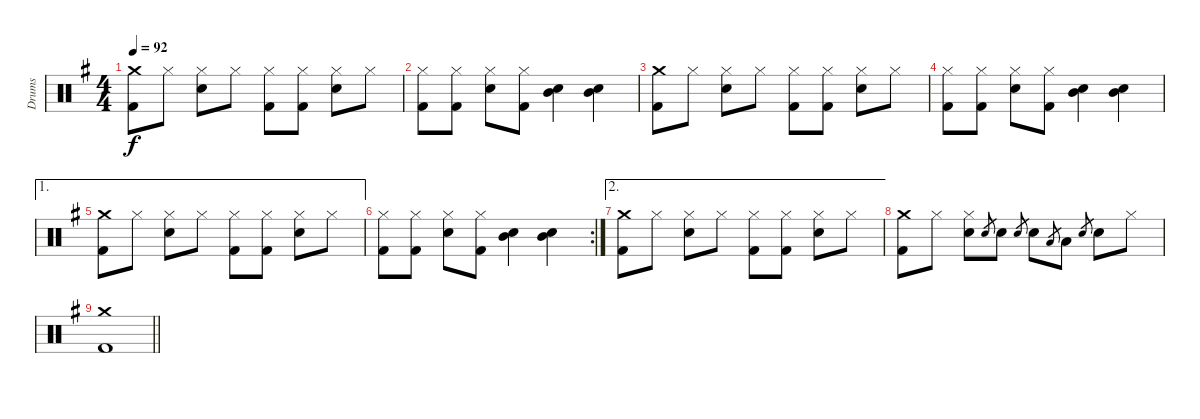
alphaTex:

\track ("Drums" "Drums") {instrument percussion}
\staff {score}
\articulation defaults
\ts (4 4)
\tempo 92
\clef neutral
\ks g
("Crash medium (hit)" "Kick (hit) 2").8{dy f} "Hi-Hat (closed)".8 ("Hi-Hat (closed)" "Snare (hit) 2").8 "Hi-Hat (closed)".8 ("Hi-Hat (closed)" "Kick (hit) 2").8 ("Hi-Hat (closed)" "Kick (hit) 2").8 ("Hi-Hat (closed)" "Snare (hit) 2").8 "Hi-Hat (closed)".8 |
("Hi-Hat (closed)" "Kick (hit) 2").8 ("Hi-Hat (closed)" "Kick (hit) 2").8 ("Hi-Hat (closed)" "Snare (hit) 2").8 ("Hi-Hat (closed)" "Kick (hit) 2").8 ("Mid Tom (hit)" "Snare (hit) 2").4 ("Mid Tom (hit)" "Snare (hit) 2").4 |
("Crash medium (hit)" "Kick (hit) 2").8 "Hi-Hat (closed)".8 ("Hi-Hat (closed)" "Snare (hit) 2").8 "Hi-Hat (closed)".8 ("Hi-Hat (closed)" "Kick (hit) 2").8 ("Hi-Hat (closed)" "Kick (hit) 2").8 ("Hi-Hat (closed)" "Snare (hit) 2").8 "Hi-Hat (closed)".8 |
("Hi-Hat (closed)" "Kick (hit) 2").8 ("Hi-Hat (closed)" "Kick (hit) 2").8 ("Hi-Hat (closed)" "Snare (hit) 2").8 ("Hi-Hat (closed)" "Kick (hit) 2").8 ("Mid Tom (hit)" "Snare (hit) 2").4 ("Mid Tom (hit)" "Snare (hit) 2").4 |
\ae 1
("Crash medium (hit)" "Kick (hit) 2").8 "Hi-Hat (closed)".8 ("Hi-Hat (closed)" "Snare (hit) 2").8 "Hi-Hat (closed)".8 ("Hi-Hat (closed)" "Kick (hit) 2").8 ("Hi-Hat (closed)" "Kick (hit) 2").8 ("Hi-Hat (closed)" "Snare (hit) 2").8 "Hi-Hat (closed)".8 |
\rc 2
("Hi-Hat (closed)" "Kick (hit) 2").8 ("Hi-Hat (closed)" "Kick (hit) 2").8 ("Hi-Hat (closed)" "Snare (hit) 2").8 ("Hi-Hat (closed)" "Kick (hit) 2").8 ("Mid Tom (hit)" "Snare (hit) 2").4 ("Mid Tom (hit)" "Snare (hit) 2").4 |
\ae 2
("Crash medium (hit)" "Kick (hit) 2").8 "Hi-Hat (closed)".8 ("Hi-Hat (closed)" "Snare (hit) 2").8 "Hi-Hat (closed)".8 ("Hi-Hat (closed)" "Kick (hit) 2").8 ("Hi-Hat (closed)" "Kick (hit) 2").8 ("Hi-Hat (closed)" "Snare (hit) 2").8 "Hi-Hat (closed)".8 |
("Crash medium (hit)" "Kick (hit) 2").8 "Hi-Hat (closed)".8 ("Hi-Hat (closed)" "Snare (hit) 2").8 "Snare (hit) 2".8{gr} "Snare (hit) 2".8 "Snare (hit) 2".8{gr} "Snare (hit) 2".8 "Low Tom (hit)".8{gr} "Low Tom (hit)".8 "Snare (hit) 2".8{gr} "Snare (hit) 2".8 "Hi-Hat (closed)".8 |
\barLineRight lightlight
("Crash medium (hit)" "Kick (hit) 2").1
